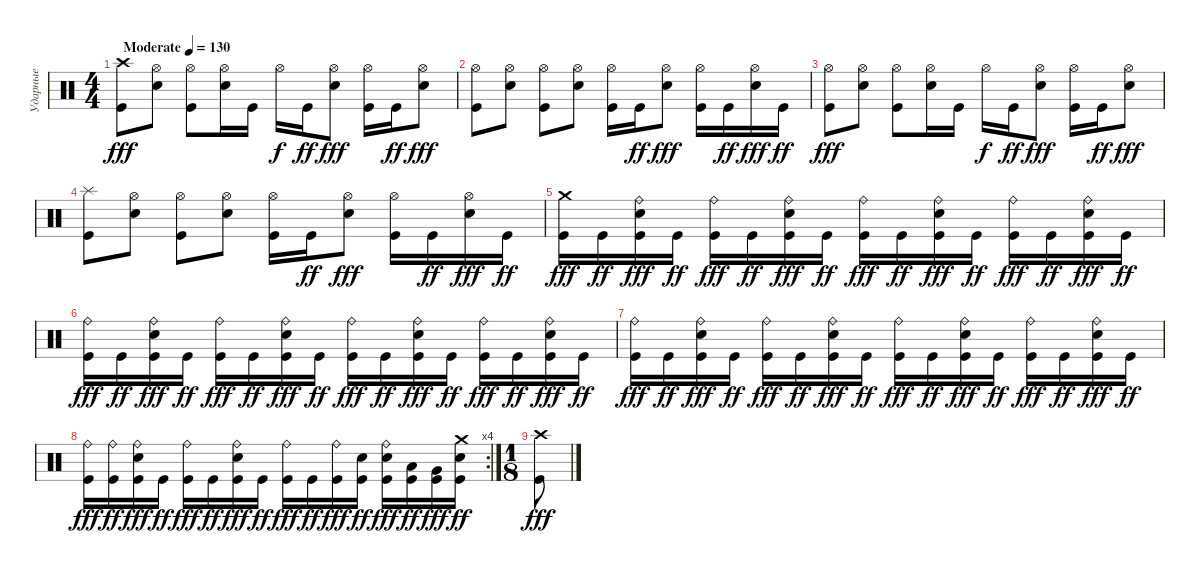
\track ("Ударные" "Ударные") {instrument percussion}
\staff {score}
\articulation defaults
\ts (4 4)
\tempo (130 "Moderate")
\clef neutral
\ks c
("Crash high (hit)" "Kick (hit)").8{dy fff} ("Hi-Hat (open)" "Electric Snare (hit)").8 ("Hi-Hat (open)" "Kick (hit)").8 ("Hi-Hat (open)" "Electric Snare (hit)").16 "Kick (hit)".16 "Hi-Hat (open)".16{dy f} "Kick (hit)".16{dy ff} ("Hi-Hat (open)" "Electric Snare (hit)").8{dy fff} ("Hi-Hat (open)" "Kick (hit)").16 "Kick (hit)".16{dy ff} ("Hi-Hat (open)" "Electric Snare (hit)").8{dy fff} |
("Hi-Hat (open)" "Kick (hit)").8 ("Hi-Hat (open)" "Electric Snare (hit)").8 ("Hi-Hat (open)" "Kick (hit)").8 ("Hi-Hat (open)" "Electric Snare (hit)").8 ("Hi-Hat (open)" "Kick (hit)").16 "Kick (hit)".16{dy ff} ("Hi-Hat (open)" "Electric Snare (hit)").8{dy fff} ("Hi-Hat (open)" "Kick (hit)").16 "Kick (hit)".16{dy ff} ("Hi-Hat (open)" "Electric Snare (hit)").16{dy fff} "Kick (hit)".16{dy ff} |
("Hi-Hat (open)" "Kick (hit)").8{dy fff} ("Hi-Hat (open)" "Electric Snare (hit)").8 ("Hi-Hat (open)" "Kick (hit)").8 ("Hi-Hat (open)" "Electric Snare (hit)").16 "Kick (hit)".16 "Hi-Hat (open)".16{dy f} "Kick (hit)".16{dy ff} ("Hi-Hat (open)" "Electric Snare (hit)").8{dy fff} ("Hi-Hat (open)" "Kick (hit)").16 "Kick (hit)".16{dy ff} ("Hi-Hat (open)" "Electric Snare (hit)").8{dy fff} |
("Splash (hit)" "Kick (hit)").8 ("Hi-Hat (open)" "Electric Snare (hit)").8 ("Hi-Hat (open)" "Kick (hit)").8 ("Hi-Hat (open)" "Electric Snare (hit)").8 ("Hi-Hat (open)" "Kick (hit)").16 "Kick (hit)".16{dy ff} ("Hi-Hat (open)" "Electric Snare (hit)").8{dy fff} ("Hi-Hat (open)" "Kick (hit)").16 "Kick (hit)".16{dy ff} ("Hi-Hat (open)" "Electric Snare (hit)").16{dy fff} "Kick (hit)".16{dy ff} |
("Crash medium (hit)" "Kick (hit)").16{dy fff} "Kick (hit)".16{dy ff} ("Ride (bell)" "Electric Snare (hit)" "Kick (hit)").16{dy fff} "Kick (hit)".16{dy ff} ("Ride (bell)" "Kick (hit)").16{dy fff} "Kick (hit)".16{dy ff} ("Ride (bell)" "Electric Snare (hit)" "Kick (hit)").16{dy fff} "Kick (hit)".16{dy ff} ("Ride (bell)" "Kick (hit)").16{dy fff} "Kick (hit)".16{dy ff} ("Ride (bell)" "Electric Snare (hit)" "Kick (hit)").16{dy fff} "Kick (hit)".16{dy ff} ("Ride (bell)" "Kick (hit)").16{dy fff} "Kick (hit)".16{dy ff} ("Ride (bell)" "Electric Snare (hit)" "Kick (hit)").16{dy fff} "Kick (hit)".16{dy ff} |
("Ride (bell)" "Kick (hit)").16{dy fff} "Kick (hit)".16{dy ff} ("Ride (bell)" "Electric Snare (hit)" "Kick (hit)").16{dy fff} "Kick (hit)".16{dy ff} ("Ride (bell)" "Kick (hit)").16{dy fff} "Kick (hit)".16{dy ff} ("Ride (bell)" "Electric Snare (hit)" "Kick (hit)").16{dy fff} "Kick (hit)".16{dy ff} ("Ride (bell)" "Kick (hit)").16{dy fff} "Kick (hit)".16{dy ff} ("Ride (bell)" "Electric Snare (hit)" "Kick (hit)").16{dy fff} "Kick (hit)".16{dy ff} ("Ride (bell)" "Kick (hit)").16{dy fff} "Kick (hit)".16{dy ff} ("Ride (bell)" "Electric Snare (hit)" "Kick (hit)").16{dy fff} "Kick (hit)".16{dy ff} |
("Ride (bell)" "Kick (hit)").16{dy fff} "Kick (hit)".16{dy ff} ("Ride (bell)" "Electric Snare (hit)" "Kick (hit)").16{dy fff} "Kick (hit)".16{dy ff} ("Ride (bell)" "Kick (hit)").16{dy fff} "Kick (hit)".16{dy ff} ("Ride (bell)" "Electric Snare (hit)" "Kick (hit)").16{dy fff} "Kick (hit)".16{dy ff} ("Ride (bell)" "Kick (hit)").16{dy fff} "Kick (hit)".16{dy ff} ("Ride (bell)" "Electric Snare (hit)" "Kick (hit)").16{dy fff} "Kick (hit)".16{dy ff} ("Ride (bell)" "Kick (hit)").16{dy fff} "Kick (hit)".16{dy ff} ("Ride (bell)" "Electric Snare (hit)" "Kick (hit)").16{dy fff} "Kick (hit)".16{dy ff} |
\rc 4
("Ride (bell)" "Kick (hit)").16{dy fff} ("Ride (bell)" "Kick (hit)").16{dy ff} ("Ride (bell)" "Electric Snare (hit)" "Kick (hit)").16{dy fff} "Kick (hit)".16{dy ff} ("Ride (bell)" "Kick (hit)").16{dy fff} "Kick (hit)".16{dy ff} ("Ride (bell)" "Electric Snare (hit)" "Kick (hit)").16{dy fff} "Kick (hit)".16{dy ff} ("Ride (bell)" "Kick (hit)").16{dy fff} "Kick (hit)".16{dy ff} ("Ride (bell)" "Kick (hit)").16{dy fff} ("Electric Snare (hit)" "Kick (hit)").16{dy ff} ("Ride (bell)" "Electric Snare (hit)" "Kick (hit)").16{dy fff} ("Low Tom (hit)" "Kick (hit)").16{dy ff} ("Very Low Tom (hit)" "Kick (hit)").16{dy fff} ("Crash medium (hit)" "Electric Snare (hit)" "Kick (hit)").16{dy ff} |
\ts (1 8)
("Crash high (hit)" "Kick (hit)").8{dy fff}
